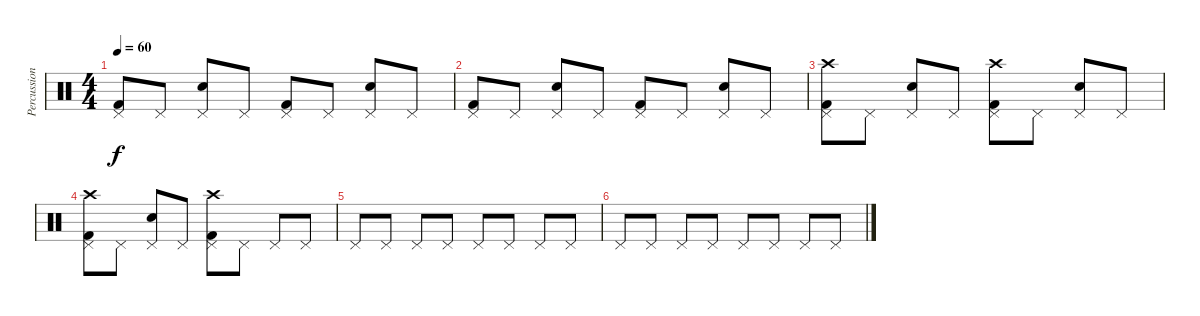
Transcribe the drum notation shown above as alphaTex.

\track ("Percussion" "Percussion") {instrument percussion}
\staff {score}
\articulation defaults
\ts (4 4)
\tempo 60
\clef neutral
\ks c
("Pedal Hi-Hat (hit)" "Kick (hit) 2").8{dy f} "Pedal Hi-Hat (hit)".8 ("Pedal Hi-Hat (hit)" "Snare (hit) 2").8 "Pedal Hi-Hat (hit)".8 ("Pedal Hi-Hat (hit)" "Kick (hit) 2").8 "Pedal Hi-Hat (hit)".8 ("Pedal Hi-Hat (hit)" "Snare (hit) 2").8 "Pedal Hi-Hat (hit)".8 |
("Pedal Hi-Hat (hit)" "Kick (hit) 2").8 "Pedal Hi-Hat (hit)".8 ("Pedal Hi-Hat (hit)" "Snare (hit) 2").8 "Pedal Hi-Hat (hit)".8 ("Pedal Hi-Hat (hit)" "Kick (hit) 2").8 "Pedal Hi-Hat (hit)".8 ("Pedal Hi-Hat (hit)" "Snare (hit) 2").8 "Pedal Hi-Hat (hit)".8 |
("Pedal Hi-Hat (hit)" "Crash high (hit)" "Kick (hit) 2").8 "Pedal Hi-Hat (hit)".8 ("Pedal Hi-Hat (hit)" "Snare (hit) 2").8 "Pedal Hi-Hat (hit)".8 ("Pedal Hi-Hat (hit)" "Crash high (hit)" "Kick (hit) 2").8 "Pedal Hi-Hat (hit)".8 ("Pedal Hi-Hat (hit)" "Snare (hit) 2").8 "Pedal Hi-Hat (hit)".8 |
("Pedal Hi-Hat (hit)" "Crash high (hit)" "Kick (hit) 2").8 "Pedal Hi-Hat (hit)".8 ("Pedal Hi-Hat (hit)" "Snare (hit) 2").8 "Pedal Hi-Hat (hit)".8 ("Pedal Hi-Hat (hit)" "Crash high (hit)" "Kick (hit) 2").8 "Pedal Hi-Hat (hit)".8 "Pedal Hi-Hat (hit)".8 "Pedal Hi-Hat (hit)".8 |
"Pedal Hi-Hat (hit)".8 "Pedal Hi-Hat (hit)".8 "Pedal Hi-Hat (hit)".8 "Pedal Hi-Hat (hit)".8 "Pedal Hi-Hat (hit)".8 "Pedal Hi-Hat (hit)".8 "Pedal Hi-Hat (hit)".8 "Pedal Hi-Hat (hit)".8 |
"Pedal Hi-Hat (hit)".8 "Pedal Hi-Hat (hit)".8 "Pedal Hi-Hat (hit)".8 "Pedal Hi-Hat (hit)".8 "Pedal Hi-Hat (hit)".8 "Pedal Hi-Hat (hit)".8 "Pedal Hi-Hat (hit)".8 "Pedal Hi-Hat (hit)".8
